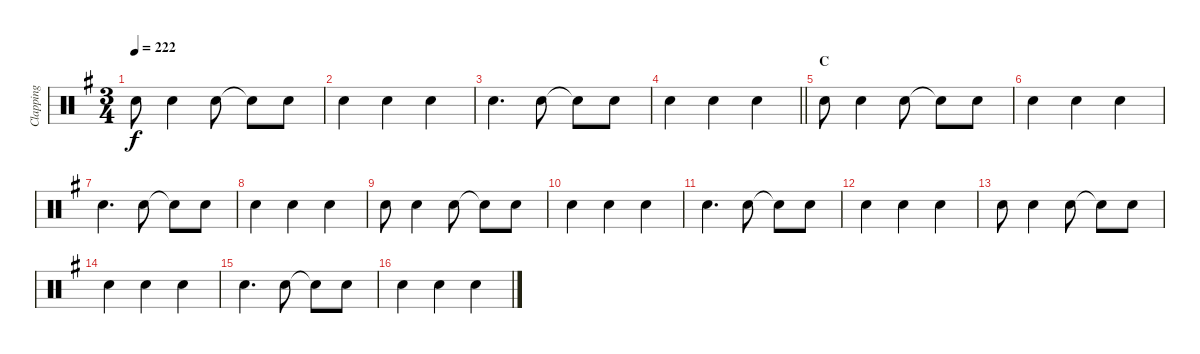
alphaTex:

\track ("Clapping" "Clapping") {instrument percussion}
\staff {score}
\articulation defaults
\ts (3 4)
\tempo 222
\clef neutral
\ks g "Hand Clap (hit)".8{dy f} "Hand Clap (hit)".4 "Hand Clap (hit)".8 "Snare (hit)"{t}.8 "Hand Clap (hit)".8
|
"Hand Clap (hit)".4 "Hand Clap (hit)".4 "Hand Clap (hit)".4 |
"Hand Clap (hit)".4{d} "Hand Clap (hit)".8 "Snare (hit)"{t}.8 "Hand Clap (hit)".8 |
\barLineRight lightlight "Hand Clap (hit)".4 "Hand Clap (hit)".4 "Hand Clap (hit)".4
|
\section ("" "C")
"Hand Clap (hit)".8 "Hand Clap (hit)".4 "Hand Clap (hit)".8 "Snare (hit)"{t}.8 "Hand Clap (hit)".8 |
"Hand Clap (hit)".4 "Hand Clap (hit)".4 "Hand Clap (hit)".4 |
"Hand Clap (hit)".4{d} "Hand Clap (hit)".8 "Snare (hit)"{t}.8 "Hand Clap (hit)".8 |
"Hand Clap (hit)".4 "Hand Clap (hit)".4 "Hand Clap (hit)".4 |
"Hand Clap (hit)".8 "Hand Clap (hit)".4 "Hand Clap (hit)".8 "Snare (hit)"{t}.8 "Hand Clap (hit)".8 |
"Hand Clap (hit)".4 "Hand Clap (hit)".4 "Hand Clap (hit)".4 |
"Hand Clap (hit)".4{d} "Hand Clap (hit)".8 "Snare (hit)"{t}.8 "Hand Clap (hit)".8 |
"Hand Clap (hit)".4 "Hand Clap (hit)".4 "Hand Clap (hit)".4 |
"Hand Clap (hit)".8 "Hand Clap (hit)".4 "Hand Clap (hit)".8 "Snare (hit)"{t}.8 "Hand Clap (hit)".8 |
"Hand Clap (hit)".4 "Hand Clap (hit)".4 "Hand Clap (hit)".4 |
"Hand Clap (hit)".4{d} "Hand Clap (hit)".8 "Snare (hit)"{t}.8 "Hand Clap (hit)".8 |
"Hand Clap (hit)".4 "Hand Clap (hit)".4 "Hand Clap (hit)".4
